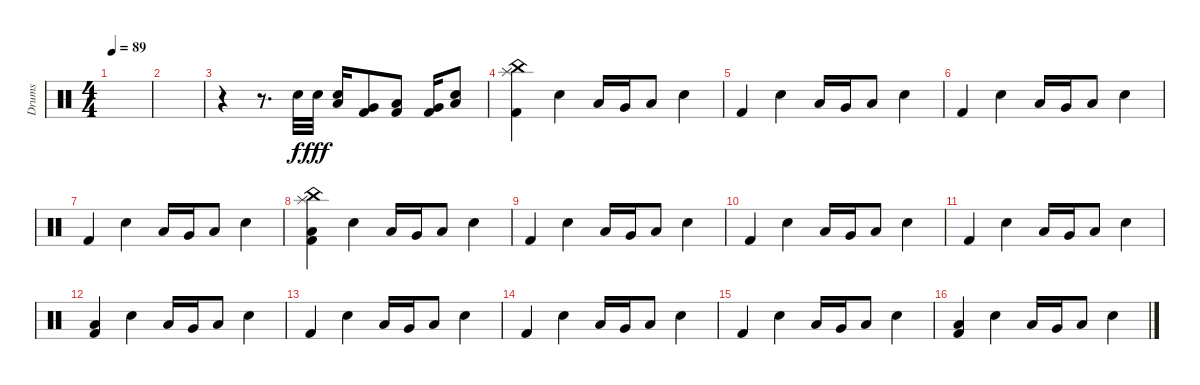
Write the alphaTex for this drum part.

\track ("Drums" "Drums") {instrument percussion}
\staff {score}
\articulation defaults
\ts (4 4)
\tempo 89
\clef neutral
\ks c
|
|
r.4 r.8{d} "Snare (hit) 2".32{dy f} "Snare (hit) 2".32{dy fff} ("Low Tom (hit)" "Snare (hit) 2").16 ("Very Low Tom (hit)" "Kick (hit) 2").8 ("Low Tom (hit)" "Kick (hit) 2").8 ("Very Low Tom (hit)" "Kick (hit) 2").16 ("Low Floor Tom (hit)" "Snare (hit) 2").8 |
("Splash (hit)" "China (hit)" "Kick (hit) 2").4 "Snare (hit) 2".4 "Low Tom (hit)".16 "Very Low Tom (hit)".16 "Low Floor Tom (hit)".8 "Snare (hit) 2".4 |
"Kick (hit) 2".4 "Snare (hit) 2".4 "Low Tom (hit)".16 "Very Low Tom (hit)".16 "Low Floor Tom (hit)".8 "Snare (hit) 2".4 |
"Kick (hit) 2".4 "Snare (hit) 2".4 "Low Tom (hit)".16 "Very Low Tom (hit)".16 "Low Floor Tom (hit)".8 "Snare (hit) 2".4 |
"Kick (hit) 2".4 "Snare (hit) 2".4 "Low Tom (hit)".16 "Very Low Tom (hit)".16 "Low Floor Tom (hit)".8 "Snare (hit) 2".4 |
("Splash (hit)" "China (hit)" "Low Floor Tom (hit)" "Kick (hit) 2").4 "Snare (hit) 2".4 "Low Tom (hit)".16 "Very Low Tom (hit)".16 "Low Floor Tom (hit)".8 "Snare (hit) 2".4 |
"Kick (hit) 2".4 "Snare (hit) 2".4 "Low Tom (hit)".16 "Very Low Tom (hit)".16 "Low Floor Tom (hit)".8 "Snare (hit) 2".4 |
"Kick (hit) 2".4 "Snare (hit) 2".4 "Low Tom (hit)".16 "Very Low Tom (hit)".16 "Low Floor Tom (hit)".8 "Snare (hit) 2".4 |
"Kick (hit) 2".4 "Snare (hit) 2".4 "Low Tom (hit)".16 "Very Low Tom (hit)".16 "Low Floor Tom (hit)".8 "Snare (hit) 2".4 |
("Low Floor Tom (hit)" "Kick (hit) 2").4 "Snare (hit) 2".4 "Low Tom (hit)".16 "Very Low Tom (hit)".16 "Low Floor Tom (hit)".8 "Snare (hit) 2".4 |
"Kick (hit) 2".4 "Snare (hit) 2".4 "Low Tom (hit)".16 "Very Low Tom (hit)".16 "Low Floor Tom (hit)".8 "Snare (hit) 2".4 |
"Kick (hit) 2".4 "Snare (hit) 2".4 "Low Tom (hit)".16 "Very Low Tom (hit)".16 "Low Floor Tom (hit)".8 "Snare (hit) 2".4 |
"Kick (hit) 2".4 "Snare (hit) 2".4 "Low Tom (hit)".16 "Very Low Tom (hit)".16 "Low Floor Tom (hit)".8 "Snare (hit) 2".4 |
("Low Floor Tom (hit)" "Kick (hit) 2").4 "Snare (hit) 2".4 "Low Tom (hit)".16 "Very Low Tom (hit)".16 "Low Floor Tom (hit)".8 "Snare (hit) 2".4
